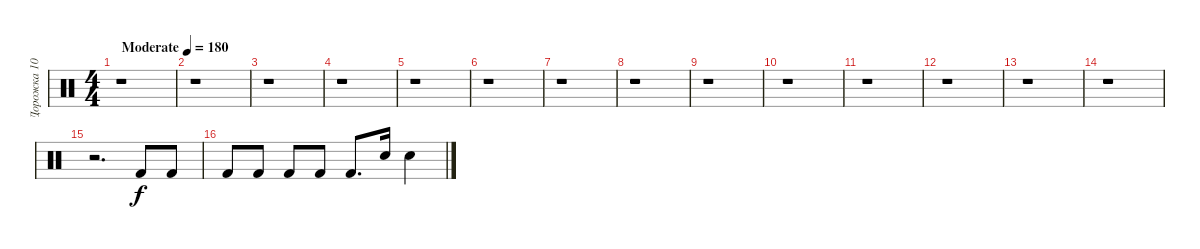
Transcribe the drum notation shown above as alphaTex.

\track ("Дорожка 10" "Дорожка 10") {instrument percussion}
\staff {score}
\articulation defaults
\ts (4 4)
\tempo (180 "Moderate")
\clef neutral
\ks c
r.1{dy f} |
r.1 |
r.1 |
r.1 |
r.1 |
r.1 |
r.1 |
r.1 |
r.1 |
r.1 |
r.1 |
r.1 |
r.1 |
r.1 |
r.2{d} "Kick (hit) 2".8 "Kick (hit) 2".8 |
"Kick (hit) 2".8 "Kick (hit) 2".8 "Kick (hit) 2".8 "Kick (hit) 2".8 "Kick (hit) 2".8{d} "Snare (hit) 2".16 "Snare (hit) 2".4
